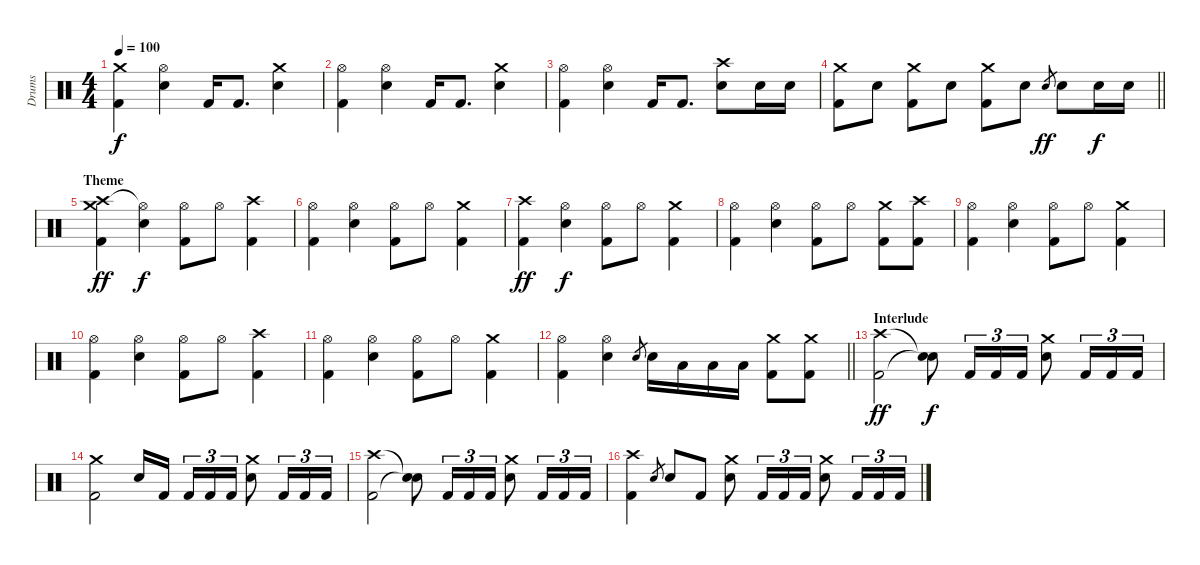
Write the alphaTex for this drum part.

\track ("Drums" "Drums") {instrument percussion}
\staff {score}
\articulation defaults
\ts (4 4)
\tempo 100
\clef neutral
\ks c
("Crash medium (hit)" "Kick (hit) 2").4{dy f} ("Hi-Hat (open)" "Snare (hit) 2").4 "Kick (hit) 2".16 "Kick (hit) 2".8{d} ("Crash medium (hit)" "Snare (hit) 2").4 |
("Hi-Hat (open)" "Kick (hit) 2").4 ("Hi-Hat (open)" "Snare (hit) 2").4 "Kick (hit) 2".16 "Kick (hit) 2".8{d} ("Crash medium (hit)" "Snare (hit) 2").4 |
("Hi-Hat (open)" "Kick (hit) 2").4 ("Hi-Hat (open)" "Snare (hit) 2").4 "Kick (hit) 2".16 "Kick (hit) 2".8{d} ("Crash high (hit)" "Snare (hit) 2").8 "Snare (hit) 2".16 "Snare (hit) 2".16 |
\barLineRight lightlight
("Crash medium (hit)" "Kick (hit) 2").8 "Snare (hit) 2".8 ("Crash medium (hit)" "Kick (hit) 2").8 "Snare (hit) 2".8 ("Crash medium (hit)" "Kick (hit) 2").8 "Snare (hit) 2".8 "Electric Snare (hit)".8{gr dy ff} "Electric Snare (hit)".8 "Snare (hit) 2".16{dy f} "Snare (hit) 2".16 |
\section ("" "Theme")
("Crash high (hit)" "Crash medium (hit)" "Kick (hit) 2").4{dy ff} ("Hi-Hat (open)"{t} "Snare (hit) 2").4{dy f} ("Hi-Hat (open)" "Kick (hit) 2").8 "Hi-Hat (open)".8 ("Crash high (hit)" "Kick (hit) 2").4 |
("Hi-Hat (open)" "Kick (hit) 2").4 ("Hi-Hat (open)" "Snare (hit) 2").4 ("Hi-Hat (open)" "Kick (hit) 2").8 "Hi-Hat (open)".8 ("Crash medium (hit)" "Kick (hit) 2").4 |
("Crash high (hit)" "Kick (hit) 2").4{dy ff} ("Hi-Hat (open)" "Snare (hit) 2").4{dy f} ("Hi-Hat (open)" "Kick (hit) 2").8 "Hi-Hat (open)".8 ("Crash medium (hit)" "Kick (hit) 2").4 |
("Hi-Hat (open)" "Kick (hit) 2").4 ("Hi-Hat (open)" "Snare (hit) 2").4 ("Hi-Hat (open)" "Kick (hit) 2").8 "Hi-Hat (open)".8 ("Crash medium (hit)" "Kick (hit) 2").8 ("Crash high (hit)" "Kick (hit) 2").8 |
("Hi-Hat (open)" "Kick (hit) 2").4 ("Hi-Hat (open)" "Snare (hit) 2").4 ("Hi-Hat (open)" "Kick (hit) 2").8 "Hi-Hat (open)".8 ("Crash medium (hit)" "Kick (hit) 2").4 |
("Hi-Hat (open)" "Kick (hit) 2").4 ("Hi-Hat (open)" "Snare (hit) 2").4 ("Hi-Hat (open)" "Kick (hit) 2").8 "Hi-Hat (open)".8 ("Crash high (hit)" "Kick (hit) 2").4 |
("Hi-Hat (open)" "Kick (hit) 2").4 ("Hi-Hat (open)" "Snare (hit) 2").4 ("Hi-Hat (open)" "Kick (hit) 2").8 "Hi-Hat (open)".8 ("Crash medium (hit)" "Kick (hit) 2").4 |
\barLineRight lightlight
("Hi-Hat (open)" "Kick (hit) 2").4 ("Hi-Hat (open)" "Snare (hit) 2").4 "Electric Snare (hit)".8{gr} "Electric Snare (hit)".16 "Low Floor Tom (hit)".16 "Low Floor Tom (hit)".16 "Low Floor Tom (hit)".16 ("Crash medium (hit)" "Kick (hit) 2").8 ("Crash medium (hit)" "Kick (hit) 2").8 |
\section ("" "Interlude")
("Crash high (hit)" "Kick (hit) 2").2{dy ff} ("Snare (hit)"{t} "Snare (hit)"{t}).8{dy f} "Kick (hit) 2".16{tu (3 2)} "Kick (hit) 2".16{tu (3 2)} "Kick (hit) 2".16{tu (3 2)} ("Crash medium (hit)" "Snare (hit) 2").8 "Kick (hit) 2".16{tu (3 2)} "Kick (hit) 2".16{tu (3 2)} "Kick (hit) 2".16{tu (3 2)} |
("Crash medium (hit)" "Kick (hit) 2").2 "Snare (hit) 2".16 "Kick (hit) 2".16{beam splitsecondary} "Kick (hit) 2".16{tu (3 2)} "Kick (hit) 2".16{tu (3 2)} "Kick (hit) 2".16{tu (3 2)} ("Crash medium (hit)" "Snare (hit) 2").8 "Kick (hit) 2".16{tu (3 2)} "Kick (hit) 2".16{tu (3 2)} "Kick (hit) 2".16{tu (3 2)} |
("Crash high (hit)" "Kick (hit) 2").2 ("Snare (hit)"{t} "Snare (hit)"{t}).8 "Kick (hit) 2".16{tu (3 2)} "Kick (hit) 2".16{tu (3 2)} "Kick (hit) 2".16{tu (3 2)} ("Crash medium (hit)" "Snare (hit) 2").8 "Kick (hit) 2".16{tu (3 2)} "Kick (hit) 2".16{tu (3 2)} "Kick (hit) 2".16{tu (3 2)} |
("Crash high (hit)" "Kick (hit) 2").4 "Electric Snare (hit)".8{gr} "Electric Snare (hit)".8 "Kick (hit) 2".8 ("Crash medium (hit)" "Snare (hit) 2").8 "Kick (hit) 2".16{tu (3 2)} "Kick (hit) 2".16{tu (3 2)} "Kick (hit) 2".16{tu (3 2)} ("Crash medium (hit)" "Snare (hit) 2").8 "Kick (hit) 2".16{tu (3 2)} "Kick (hit) 2".16{tu (3 2)} "Kick (hit) 2".16{tu (3 2)}
